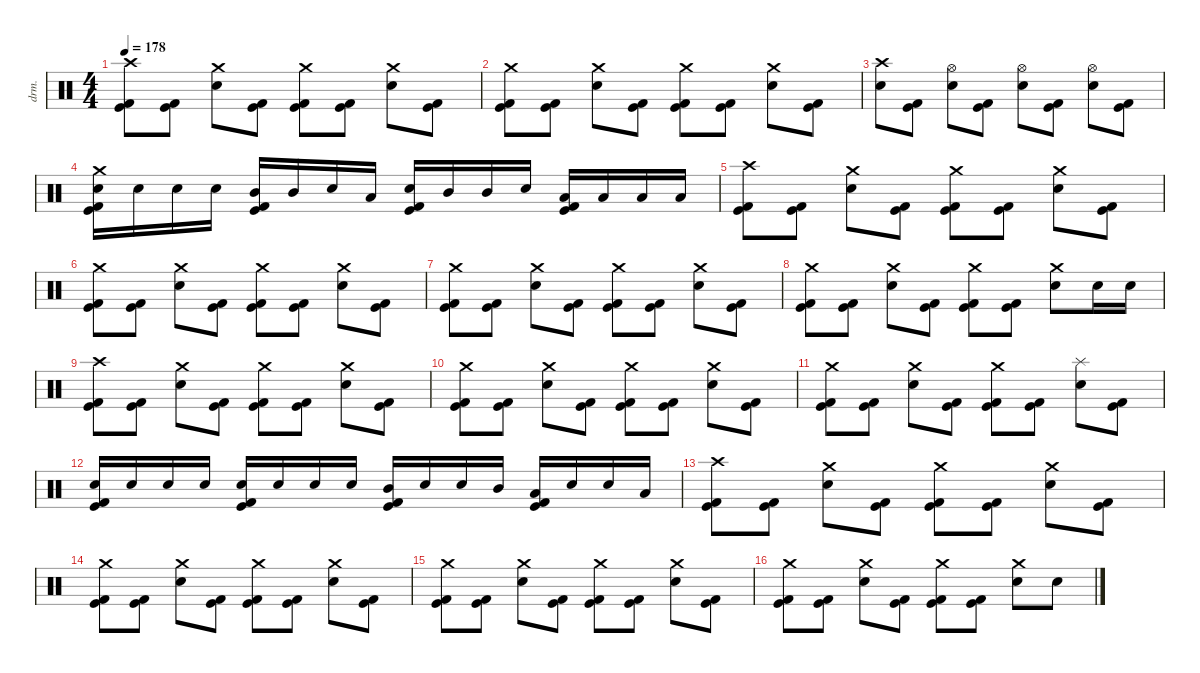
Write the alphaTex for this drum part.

\defaultSystemsLayout 4
\hideDynamics
\bracketExtendMode nobrackets
\otherSystemsTrackNameOrientation horizontal
\track ("Drums" "drm.") {instrument percussion}
\staff {score}
\articulation defaults
\ts (4 4)
\tempo 178
\clef neutral
\ks c
("Kick (hit)" "Kick (hit) 2" "Crash high (hit)").8{dy ff beam Down} ("Kick (hit)" "Kick (hit) 2").8{beam Down} ("Snare (hit) 2" "Crash medium (hit)").8{beam Down} ("Kick (hit)" "Kick (hit) 2").8{beam Down} ("Kick (hit)" "Kick (hit) 2" "Crash medium (hit)").8{beam Down} ("Kick (hit)" "Kick (hit) 2").8{beam Down} ("Snare (hit) 2" "Crash medium (hit)").8{beam Down} ("Kick (hit)" "Kick (hit) 2").8{beam Down} |
("Kick (hit)" "Kick (hit) 2" "Crash medium (hit)").8{beam Down} ("Kick (hit)" "Kick (hit) 2").8{beam Down} ("Snare (hit) 2" "Crash medium (hit)").8{beam Down} ("Kick (hit)" "Kick (hit) 2").8{beam Down} ("Kick (hit)" "Kick (hit) 2" "Crash medium (hit)").8{beam Down} ("Kick (hit)" "Kick (hit) 2").8{beam Down} ("Snare (hit) 2" "Crash medium (hit)").8{beam Down} ("Kick (hit)" "Kick (hit) 2").8{beam Down} |
("Snare (hit) 2" "Crash high (hit)").8{beam Down} ("Kick (hit)" "Kick (hit) 2").8{beam Down} ("Snare (hit) 2" "Hi-Hat (open)").8{beam Down} ("Kick (hit)" "Kick (hit) 2").8{beam Down} ("Snare (hit) 2" "Hi-Hat (open)").8{beam Down} ("Kick (hit)" "Kick (hit) 2").8{beam Down} ("Snare (hit) 2" "Hi-Hat (open)").8{beam Down} ("Kick (hit)" "Kick (hit) 2").8{beam Down} |
("Kick (hit)" "Kick (hit) 2" "Snare (hit) 2" "Crash medium (hit)").16{beam Down} "Snare (hit) 2".16{dy f beam Down} "Snare (hit) 2".16{beam Down} "Snare (hit) 2".16{beam Down} ("Kick (hit)" "Kick (hit) 2" "Mid Tom (hit)").16{dy ff beam Up} "Mid Tom (hit)".16{dy f beam Up} "Snare (hit) 2".16{beam Up} "Low Tom (hit)".16{beam Up} ("Kick (hit)" "Kick (hit) 2" "Snare (hit) 2").16{dy ff beam Up} "Mid Tom (hit)".16{dy f beam Up} "Mid Tom (hit)".16{beam Up} "Snare (hit) 2".16{beam Up} ("Kick (hit)" "Kick (hit) 2" "Low Tom (hit)").16{dy ff beam Up} "Low Tom (hit)".16{dy f beam Up} "Low Tom (hit)".16{beam Up} "Low Tom (hit)".16{beam Up} |
("Kick (hit)" "Kick (hit) 2" "Crash high (hit)").8{dy ff beam Down} ("Kick (hit)" "Kick (hit) 2").8{beam Down} ("Snare (hit) 2" "Crash medium (hit)").8{beam Down} ("Kick (hit)" "Kick (hit) 2").8{beam Down} ("Kick (hit)" "Kick (hit) 2" "Crash medium (hit)").8{beam Down} ("Kick (hit)" "Kick (hit) 2").8{beam Down} ("Snare (hit) 2" "Crash medium (hit)").8{beam Down} ("Kick (hit)" "Kick (hit) 2").8{beam Down} |
("Kick (hit)" "Kick (hit) 2" "Crash medium (hit)").8{beam Down} ("Kick (hit)" "Kick (hit) 2").8{beam Down} ("Snare (hit) 2" "Crash medium (hit)").8{beam Down} ("Kick (hit)" "Kick (hit) 2").8{beam Down} ("Kick (hit)" "Kick (hit) 2" "Crash medium (hit)").8{beam Down} ("Kick (hit)" "Kick (hit) 2").8{beam Down} ("Snare (hit) 2" "Crash medium (hit)").8{beam Down} ("Kick (hit)" "Kick (hit) 2").8{beam Down} |
("Kick (hit)" "Kick (hit) 2" "Crash medium (hit)").8{beam Down} ("Kick (hit)" "Kick (hit) 2").8{beam Down} ("Snare (hit) 2" "Crash medium (hit)").8{beam Down} ("Kick (hit)" "Kick (hit) 2").8{beam Down} ("Kick (hit)" "Kick (hit) 2" "Crash medium (hit)").8{beam Down} ("Kick (hit)" "Kick (hit) 2").8{beam Down} ("Snare (hit) 2" "Crash medium (hit)").8{beam Down} ("Kick (hit)" "Kick (hit) 2").8{beam Down} |
("Kick (hit)" "Kick (hit) 2" "Crash medium (hit)").8{beam Down} ("Kick (hit)" "Kick (hit) 2").8{beam Down} ("Snare (hit) 2" "Crash medium (hit)").8{beam Down} ("Kick (hit)" "Kick (hit) 2").8{beam Down} ("Kick (hit)" "Kick (hit) 2" "Crash medium (hit)").8{beam Down} ("Kick (hit)" "Kick (hit) 2").8{beam Down} ("Snare (hit) 2" "Crash medium (hit)").8{beam Down} "Snare (hit) 2".16{dy f beam Down} "Snare (hit) 2".16{dy ff beam Down} |
("Kick (hit)" "Kick (hit) 2" "Crash high (hit)").8{beam Down} ("Kick (hit)" "Kick (hit) 2").8{beam Down} ("Snare (hit) 2" "Crash medium (hit)").8{beam Down} ("Kick (hit)" "Kick (hit) 2").8{beam Down} ("Kick (hit)" "Kick (hit) 2" "Crash medium (hit)").8{beam Down} ("Kick (hit)" "Kick (hit) 2").8{beam Down} ("Snare (hit) 2" "Crash medium (hit)").8{beam Down} ("Kick (hit)" "Kick (hit) 2").8{beam Down} |
("Kick (hit)" "Kick (hit) 2" "Crash medium (hit)").8{beam Down} ("Kick (hit)" "Kick (hit) 2").8{beam Down} ("Snare (hit) 2" "Crash medium (hit)").8{beam Down} ("Kick (hit)" "Kick (hit) 2").8{beam Down} ("Kick (hit)" "Kick (hit) 2" "Crash medium (hit)").8{beam Down} ("Kick (hit)" "Kick (hit) 2").8{beam Down} ("Snare (hit) 2" "Crash medium (hit)").8{beam Down} ("Kick (hit)" "Kick (hit) 2").8{beam Down} |
("Kick (hit)" "Kick (hit) 2" "Crash medium (hit)").8{beam Down} ("Kick (hit)" "Kick (hit) 2").8{beam Down} ("Snare (hit) 2" "Crash medium (hit)").8{beam Down} ("Kick (hit)" "Kick (hit) 2").8{beam Down} ("Kick (hit)" "Kick (hit) 2" "Crash medium (hit)").8{beam Down} ("Kick (hit)" "Kick (hit) 2").8{beam Down} ("Snare (hit) 2" "Splash (hit)").8{beam Down} ("Kick (hit)" "Kick (hit) 2").8{beam Down} |
("Kick (hit)" "Kick (hit) 2" "Snare (hit) 2").16{beam Up} "Snare (hit) 2".16{dy f beam Up} "Snare (hit) 2".16{beam Up} "Snare (hit) 2".16{beam Up} ("Kick (hit)" "Kick (hit) 2" "Snare (hit) 2").16{dy ff beam Up} "Snare (hit) 2".16{dy f beam Up} "Snare (hit) 2".16{beam Up} "Snare (hit) 2".16{beam Up} ("Kick (hit)" "Kick (hit) 2" "Mid Tom (hit)").16{dy ff beam Up} "Snare (hit) 2".16{dy f beam Up} "Snare (hit) 2".16{beam Up} "Mid Tom (hit)".16{beam Up} ("Kick (hit)" "Kick (hit) 2" "Low Tom (hit)").16{dy ff beam Up} "Snare (hit) 2".16{dy f beam Up} "Snare (hit) 2".16{beam Up} "Low Tom (hit)".16{beam Up} |
("Kick (hit)" "Kick (hit) 2" "Crash high (hit)").8{dy ff beam Down} ("Kick (hit)" "Kick (hit) 2").8{beam Down} ("Snare (hit) 2" "Crash medium (hit)").8{beam Down} ("Kick (hit)" "Kick (hit) 2").8{beam Down} ("Kick (hit)" "Kick (hit) 2" "Crash medium (hit)").8{beam Down} ("Kick (hit)" "Kick (hit) 2").8{beam Down} ("Snare (hit) 2" "Crash medium (hit)").8{beam Down} ("Kick (hit)" "Kick (hit) 2").8{beam Down} |
("Kick (hit)" "Kick (hit) 2" "Crash medium (hit)").8{beam Down} ("Kick (hit)" "Kick (hit) 2").8{beam Down} ("Snare (hit) 2" "Crash medium (hit)").8{beam Down} ("Kick (hit)" "Kick (hit) 2").8{beam Down} ("Kick (hit)" "Kick (hit) 2" "Crash medium (hit)").8{beam Down} ("Kick (hit)" "Kick (hit) 2").8{beam Down} ("Snare (hit) 2" "Crash medium (hit)").8{beam Down} ("Kick (hit)" "Kick (hit) 2").8{beam Down} |
("Kick (hit)" "Kick (hit) 2" "Crash medium (hit)").8{beam Down} ("Kick (hit)" "Kick (hit) 2").8{beam Down} ("Snare (hit) 2" "Crash medium (hit)").8{beam Down} ("Kick (hit)" "Kick (hit) 2").8{beam Down} ("Kick (hit)" "Kick (hit) 2" "Crash medium (hit)").8{beam Down} ("Kick (hit)" "Kick (hit) 2").8{beam Down} ("Snare (hit) 2" "Crash medium (hit)").8{beam Down} ("Kick (hit)" "Kick (hit) 2").8{beam Down} |
("Kick (hit)" "Kick (hit) 2" "Crash medium (hit)").8{beam Down} ("Kick (hit)" "Kick (hit) 2").8{beam Down} ("Snare (hit) 2" "Crash medium (hit)").8{beam Down} ("Kick (hit)" "Kick (hit) 2").8{beam Down} ("Kick (hit)" "Kick (hit) 2" "Crash medium (hit)").8{beam Down} ("Kick (hit)" "Kick (hit) 2").8{beam Down} ("Snare (hit) 2" "Crash medium (hit)").8{beam Down} "Snare (hit) 2".8{dy f beam Down}
